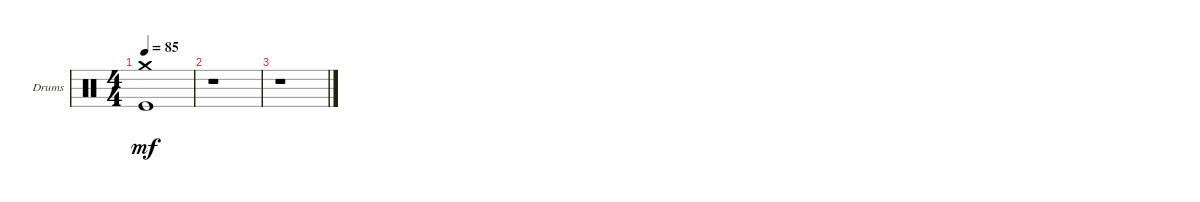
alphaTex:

\defaultSystemsLayout 4
\bracketExtendMode groupsimilarinstruments
\firstSystemTrackNameOrientation horizontal
\otherSystemsTrackNameOrientation horizontal
\track ("Drumkit" "Drums") {instrument percussion}
\staff {score}
\articulation defaults
\ts (4 4)
\tempo 85
\clef neutral
\ks c
("Kick (hit)" "Crash medium (hit)").1{dy mf} |
r.1 |
r.1
